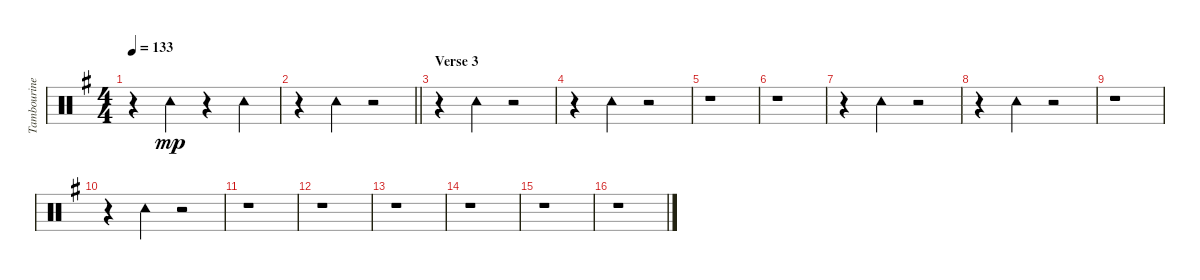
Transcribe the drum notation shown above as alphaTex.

\track ("Tambourine/Claps" "Tambourine") {instrument percussion}
\staff {score}
\articulation defaults
\ts (4 4)
\tempo 133
\clef neutral
\ks g
r.4{dy mp} "Tambourine (hit)".4 r.4 "Tambourine (hit)".4 |
\barLineRight lightlight
r.4 "Tambourine (hit)".4 r.2 |
\section ("" "Verse 3")
r.4 "Tambourine (hit)".4 r.2 |
r.4 "Tambourine (hit)".4 r.2 |
r.1 |
r.1 |
r.4 "Tambourine (hit)".4 r.2 |
r.4 "Tambourine (hit)".4 r.2 |
r.1 |
r.4 "Tambourine (hit)".4 r.2 |
r.1 |
r.1 |
r.1 |
r.1 |
r.1 |
r.1
